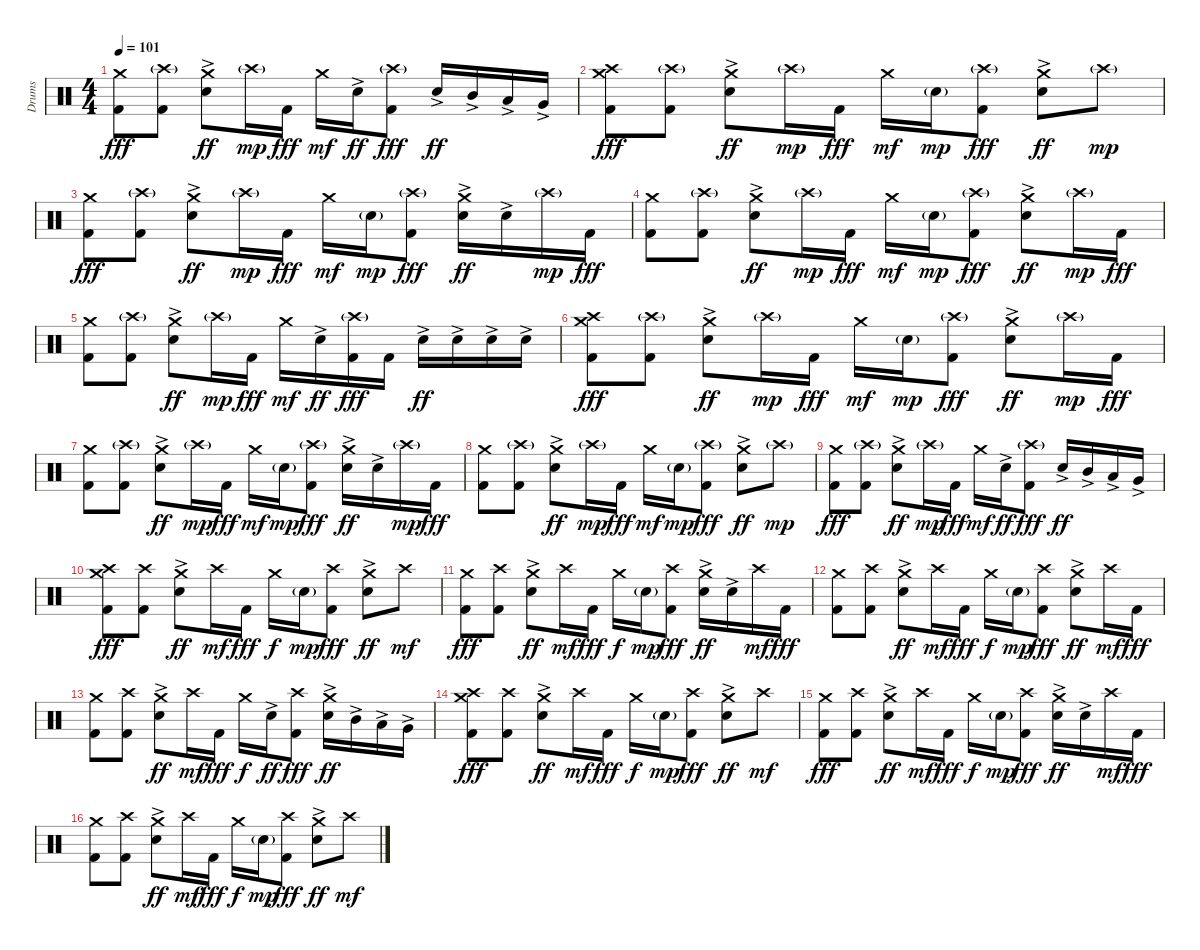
\track ("Drums" "Drums") {instrument percussion}
\staff {score}
\articulation defaults
\ts (4 4)
\tempo 101
\clef neutral
\ks c
("Crash medium (hit)" "Kick (hit) 2").8{dy fff} ("Crash high (hit)"{g} "Kick (hit) 2").8 ("Crash medium (hit)" "Electric Snare (hit)"{ac}).8{dy ff} "Crash high (hit)"{g}.16{dy mp} "Kick (hit) 2".16{dy fff} "Crash medium (hit)".16{dy mf} "Electric Snare (hit)"{ac}.16{dy ff} ("Crash high (hit)"{g} "Kick (hit) 2").8{dy fff} "Electric Snare (hit)"{ac}.16{dy ff} "Mid Tom (hit)"{ac}.16 "Low Tom (hit)"{ac}.16 "Very Low Tom (hit)"{ac}.16 |
("Crash medium (hit)" "Crash high (hit)" "Kick (hit) 2").8{dy fff} ("Crash high (hit)"{g} "Kick (hit) 2").8 ("Crash medium (hit)" "Electric Snare (hit)"{ac}).8{dy ff} "Crash high (hit)"{g}.16{dy mp} "Kick (hit) 2".16{dy fff} "Crash medium (hit)".16{dy mf} "Snare (hit) 2"{g}.16{dy mp} ("Crash high (hit)"{g} "Kick (hit) 2").8{dy fff} ("Crash medium (hit)" "Electric Snare (hit)"{ac}).8{dy ff} "Crash high (hit)"{g}.8{dy mp} |
("Crash medium (hit)" "Kick (hit) 2").8{dy fff} ("Crash high (hit)"{g} "Kick (hit) 2").8 ("Crash medium (hit)" "Electric Snare (hit)"{ac}).8{dy ff} "Crash high (hit)"{g}.16{dy mp} "Kick (hit) 2".16{dy fff} "Crash medium (hit)".16{dy mf} "Snare (hit) 2"{g}.16{dy mp} ("Crash high (hit)"{g} "Kick (hit) 2").8{dy fff} ("Crash medium (hit)" "Electric Snare (hit)"{ac}).16{dy ff} "Electric Snare (hit)"{ac}.16 "Crash high (hit)"{g}.16{dy mp} "Kick (hit) 2".16{dy fff} |
("Crash medium (hit)" "Kick (hit) 2").8 ("Crash high (hit)"{g} "Kick (hit) 2").8 ("Crash medium (hit)" "Electric Snare (hit)"{ac}).8{dy ff} "Crash high (hit)"{g}.16{dy mp} "Kick (hit) 2".16{dy fff} "Crash medium (hit)".16{dy mf} "Snare (hit) 2"{g}.16{dy mp} ("Crash high (hit)"{g} "Kick (hit) 2").8{dy fff} ("Crash medium (hit)" "Electric Snare (hit)"{ac}).8{dy ff} "Crash high (hit)"{g}.16{dy mp} "Kick (hit) 2".16{dy fff} |
("Crash medium (hit)" "Kick (hit) 2").8 ("Crash high (hit)"{g} "Kick (hit) 2").8 ("Crash medium (hit)" "Electric Snare (hit)"{ac}).8{dy ff} "Crash high (hit)"{g}.16{dy mp} "Kick (hit) 2".16{dy fff} "Crash medium (hit)".16{dy mf} "Electric Snare (hit)"{ac}.16{dy ff} ("Crash high (hit)"{g} "Kick (hit) 2").16{dy fff} "Kick (hit) 2".16 "Electric Snare (hit)"{ac}.16{dy ff} "Electric Snare (hit)"{ac}.16 "Electric Snare (hit)"{ac}.16 "Electric Snare (hit)"{ac}.16 |
("Crash medium (hit)" "Crash high (hit)" "Kick (hit) 2").8{dy fff} ("Crash high (hit)"{g} "Kick (hit) 2").8 ("Crash medium (hit)" "Electric Snare (hit)"{ac}).8{dy ff} "Crash high (hit)"{g}.16{dy mp} "Kick (hit) 2".16{dy fff} "Crash medium (hit)".16{dy mf} "Snare (hit) 2"{g}.16{dy mp} ("Crash high (hit)"{g} "Kick (hit) 2").8{dy fff} ("Crash medium (hit)" "Electric Snare (hit)"{ac}).8{dy ff} "Crash high (hit)"{g}.16{dy mp} "Kick (hit) 2".16{dy fff} |
("Crash medium (hit)" "Kick (hit) 2").8 ("Crash high (hit)"{g} "Kick (hit) 2").8 ("Crash medium (hit)" "Electric Snare (hit)"{ac}).8{dy ff} "Crash high (hit)"{g}.16{dy mp} "Kick (hit) 2".16{dy fff} "Crash medium (hit)".16{dy mf} "Snare (hit) 2"{g}.16{dy mp} ("Crash high (hit)"{g} "Kick (hit) 2").8{dy fff} ("Crash medium (hit)" "Electric Snare (hit)"{ac}).16{dy ff} "Electric Snare (hit)"{ac}.16 "Crash high (hit)"{g}.16{dy mp} "Kick (hit) 2".16{dy fff} |
("Crash medium (hit)" "Kick (hit) 2").8 ("Crash high (hit)"{g} "Kick (hit) 2").8 ("Crash medium (hit)" "Electric Snare (hit)"{ac}).8{dy ff} "Crash high (hit)"{g}.16{dy mp} "Kick (hit) 2".16{dy fff} "Crash medium (hit)".16{dy mf} "Snare (hit) 2"{g}.16{dy mp} ("Crash high (hit)"{g} "Kick (hit) 2").8{dy fff} ("Crash medium (hit)" "Electric Snare (hit)"{ac}).8{dy ff} "Crash high (hit)"{g}.8{dy mp} |
("Crash medium (hit)" "Kick (hit) 2").8{dy fff} ("Crash high (hit)"{g} "Kick (hit) 2").8 ("Crash medium (hit)" "Electric Snare (hit)"{ac}).8{dy ff} "Crash high (hit)"{g}.16{dy mp} "Kick (hit) 2".16{dy fff} "Crash medium (hit)".16{dy mf} "Electric Snare (hit)"{ac}.16{dy ff} ("Crash high (hit)"{g} "Kick (hit) 2").8{dy fff} "Electric Snare (hit)"{ac}.16{dy ff} "Mid Tom (hit)"{ac}.16 "Low Tom (hit)"{ac}.16 "Very Low Tom (hit)"{ac}.16 |
("Crash medium (hit)" "Crash high (hit)" "Kick (hit) 2").8{dy fff} ("Crash high (hit)" "Kick (hit) 2").8 ("Crash medium (hit)" "Electric Snare (hit)"{ac}).8{dy ff} "Crash high (hit)".16{dy mf} "Kick (hit) 2".16{dy fff} "Crash medium (hit)".16{dy f} "Snare (hit) 2"{g}.16{dy mp} ("Crash high (hit)" "Kick (hit) 2").8{dy fff} ("Crash medium (hit)" "Electric Snare (hit)"{ac}).8{dy ff} "Crash high (hit)".8{dy mf} |
("Crash medium (hit)" "Kick (hit) 2").8{dy fff} ("Crash high (hit)" "Kick (hit) 2").8 ("Crash medium (hit)" "Electric Snare (hit)"{ac}).8{dy ff} "Crash high (hit)".16{dy mf} "Kick (hit) 2".16{dy fff} "Crash medium (hit)".16{dy f} "Snare (hit) 2"{g}.16{dy mp} ("Crash high (hit)" "Kick (hit) 2").8{dy fff} ("Crash medium (hit)" "Electric Snare (hit)"{ac}).16{dy ff} "Electric Snare (hit)"{ac}.16 "Crash high (hit)".16{dy mf} "Kick (hit) 2".16{dy fff} |
("Crash medium (hit)" "Kick (hit) 2").8 ("Crash high (hit)" "Kick (hit) 2").8 ("Crash medium (hit)" "Electric Snare (hit)"{ac}).8{dy ff} "Crash high (hit)".16{dy mf} "Kick (hit) 2".16{dy fff} "Crash medium (hit)".16{dy f} "Snare (hit) 2"{g}.16{dy mp} ("Crash high (hit)" "Kick (hit) 2").8{dy fff} ("Crash medium (hit)" "Electric Snare (hit)"{ac}).8{dy ff} "Crash high (hit)".16{dy mf} "Kick (hit) 2".16{dy fff} |
("Crash medium (hit)" "Kick (hit) 2").8 ("Crash high (hit)" "Kick (hit) 2").8 ("Crash medium (hit)" "Electric Snare (hit)"{ac}).8{dy ff} "Crash high (hit)".16{dy mf} "Kick (hit) 2".16{dy fff} "Crash medium (hit)".16{dy f} "Electric Snare (hit)"{ac}.16{dy ff} ("Crash high (hit)" "Kick (hit) 2").8{dy fff} ("Crash medium (hit)" "Electric Snare (hit)"{ac}).16{dy ff} "Mid Tom (hit)"{ac}.16 "Low Tom (hit)"{ac}.16 "Very Low Tom (hit)"{ac}.16 |
("Crash medium (hit)" "Crash high (hit)" "Kick (hit) 2").8{dy fff} ("Crash high (hit)" "Kick (hit) 2").8 ("Crash medium (hit)" "Electric Snare (hit)"{ac}).8{dy ff} "Crash high (hit)".16{dy mf} "Kick (hit) 2".16{dy fff} "Crash medium (hit)".16{dy f} "Snare (hit) 2"{g}.16{dy mp} ("Crash high (hit)" "Kick (hit) 2").8{dy fff} ("Crash medium (hit)" "Electric Snare (hit)"{ac}).8{dy ff} "Crash high (hit)".8{dy mf} |
("Crash medium (hit)" "Kick (hit) 2").8{dy fff} ("Crash high (hit)" "Kick (hit) 2").8 ("Crash medium (hit)" "Electric Snare (hit)"{ac}).8{dy ff} "Crash high (hit)".16{dy mf} "Kick (hit) 2".16{dy fff} "Crash medium (hit)".16{dy f} "Snare (hit) 2"{g}.16{dy mp} ("Crash high (hit)" "Kick (hit) 2").8{dy fff} ("Crash medium (hit)" "Electric Snare (hit)"{ac}).16{dy ff} "Electric Snare (hit)"{ac}.16 "Crash high (hit)".16{dy mf} "Kick (hit) 2".16{dy fff} |
("Crash medium (hit)" "Kick (hit) 2").8 ("Crash high (hit)" "Kick (hit) 2").8 ("Crash medium (hit)" "Electric Snare (hit)"{ac}).8{dy ff} "Crash high (hit)".16{dy mf} "Kick (hit) 2".16{dy fff} "Crash medium (hit)".16{dy f} "Snare (hit) 2"{g}.16{dy mp} ("Crash high (hit)" "Kick (hit) 2").8{dy fff} ("Crash medium (hit)" "Electric Snare (hit)"{ac}).8{dy ff} "Crash high (hit)".8{dy mf}
